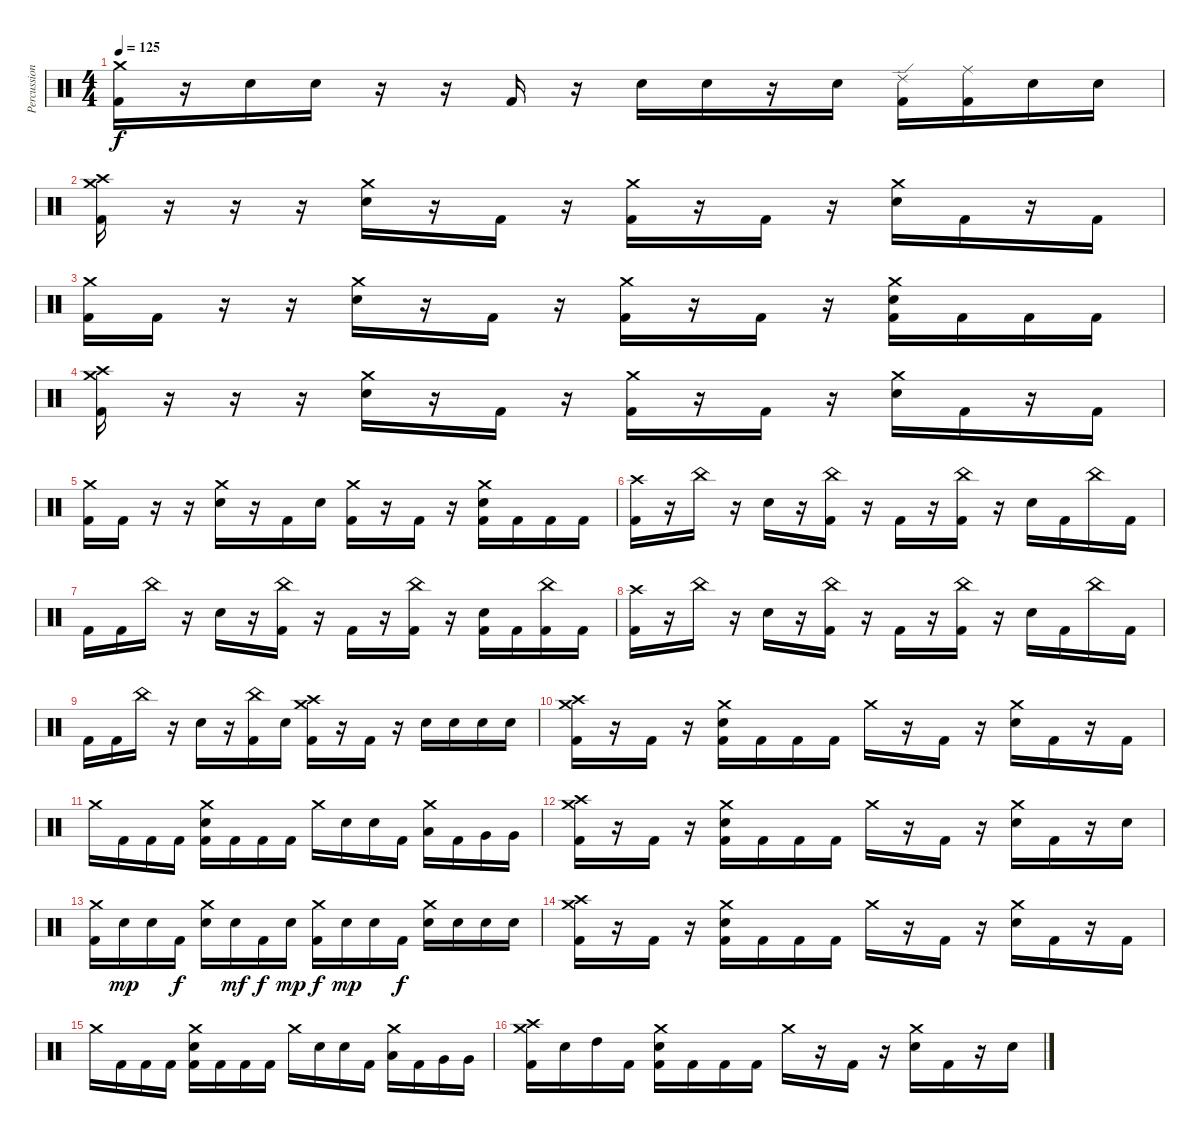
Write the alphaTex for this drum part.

\track ("Percussion" "Percussion") {instrument percussion}
\staff {score}
\articulation defaults
\ts (4 4)
\tempo 125
\clef neutral
\ks c
("Crash medium (hit)" "Kick (hit) 2").16{dy f} r.16 "Electric Snare (hit)".16 "Electric Snare (hit)".16 r.16 r.16 "Kick (hit) 2".16 r.16 "Electric Snare (hit)".16 "Electric Snare (hit)".16 r.16 "Electric Snare (hit)".16 ("Ride (edge) 2" "Kick (hit) 2").16 ("Ride (middle)" "Kick (hit) 2").16 "Electric Snare (hit)".16 "Electric Snare (hit)".16 |
("Crash high (hit)" "Crash medium (hit)" "Kick (hit) 2").16 r.16 r.16 r.16 ("Crash medium (hit)" "Electric Snare (hit)").16 r.16 "Kick (hit) 2".16 r.16 ("Crash medium (hit)" "Kick (hit) 2").16 r.16 "Kick (hit) 2".16 r.16 ("Crash medium (hit)" "Electric Snare (hit)").16 "Kick (hit) 2".16 r.16 "Kick (hit) 2".16 |
("Crash medium (hit)" "Kick (hit) 2").16 "Kick (hit) 2".16 r.16 r.16 ("Crash medium (hit)" "Electric Snare (hit)").16 r.16 "Kick (hit) 2".16 r.16 ("Crash medium (hit)" "Kick (hit) 2").16 r.16 "Kick (hit) 2".16 r.16 ("Crash medium (hit)" "Electric Snare (hit)" "Kick (hit) 2").16 "Kick (hit) 2".16 "Kick (hit) 2".16 "Kick (hit) 2".16 |
("Crash high (hit)" "Crash medium (hit)" "Kick (hit) 2").16 r.16 r.16 r.16 ("Crash medium (hit)" "Electric Snare (hit)").16 r.16 "Kick (hit) 2".16 r.16 ("Crash medium (hit)" "Kick (hit) 2").16 r.16 "Kick (hit) 2".16 r.16 ("Crash medium (hit)" "Electric Snare (hit)").16 "Kick (hit) 2".16 r.16 "Kick (hit) 2".16 |
("Crash medium (hit)" "Kick (hit) 2").16 "Kick (hit) 2".16 r.16 r.16 ("Crash medium (hit)" "Electric Snare (hit)").16 r.16 "Kick (hit) 2".16 "Electric Snare (hit)".16 ("Crash medium (hit)" "Kick (hit) 2").16 r.16 "Kick (hit) 2".16 r.16 ("Crash medium (hit)" "Electric Snare (hit)" "Kick (hit) 2").16 "Kick (hit) 2".16 "Kick (hit) 2".16 "Kick (hit) 2".16 |
("Crash high (hit)" "Kick (hit) 2").16 r.16 "China (hit)".16 r.16 "Electric Snare (hit)".16 r.16 ("China (hit)" "Kick (hit) 2").16 r.16 "Kick (hit) 2".16 r.16 ("China (hit)" "Kick (hit) 2").16 r.16 "Electric Snare (hit)".16 "Kick (hit) 2".16 "China (hit)".16 "Kick (hit) 2".16 |
"Kick (hit) 2".16 "Kick (hit) 2".16 "China (hit)".16 r.16 "Electric Snare (hit)".16 r.16 ("China (hit)" "Kick (hit) 2").16 r.16 "Kick (hit) 2".16 r.16 ("China (hit)" "Kick (hit) 2").16 r.16 ("Electric Snare (hit)" "Kick (hit) 2").16 "Kick (hit) 2".16 ("China (hit)" "Kick (hit) 2").16 "Kick (hit) 2".16 |
("Crash high (hit)" "Kick (hit) 2").16 r.16 "China (hit)".16 r.16 "Electric Snare (hit)".16 r.16 ("China (hit)" "Kick (hit) 2").16 r.16 "Kick (hit) 2".16 r.16 ("China (hit)" "Kick (hit) 2").16 r.16 "Electric Snare (hit)".16 "Kick (hit) 2".16 "China (hit)".16 "Kick (hit) 2".16 |
"Kick (hit) 2".16 "Kick (hit) 2".16 "China (hit)".16 r.16 "Electric Snare (hit)".16 r.16 ("China (hit)" "Kick (hit) 2").16 "Electric Snare (hit)".16 ("Crash high (hit)" "Crash medium (hit)" "Kick (hit) 2").16 r.16 "Kick (hit) 2".16 r.16 "Electric Snare (hit)".16 "Electric Snare (hit)".16 "Electric Snare (hit)".16 "Electric Snare (hit)".16 |
("Crash high (hit)" "Crash medium (hit)" "Kick (hit) 2").16 r.16 "Kick (hit) 2".16 r.16 ("Crash medium (hit)" "Electric Snare (hit)" "Kick (hit) 2").16 "Kick (hit) 2".16 "Kick (hit) 2".16 "Kick (hit) 2".16 "Crash medium (hit)".16 r.16 "Kick (hit) 2".16 r.16 ("Crash medium (hit)" "Electric Snare (hit)").16 "Kick (hit) 2".16 r.16 "Kick (hit) 2".16 |
"Crash medium (hit)".16 "Kick (hit) 2".16 "Kick (hit) 2".16 "Kick (hit) 2".16 ("Crash medium (hit)" "Electric Snare (hit)" "Kick (hit) 2").16 "Kick (hit) 2".16 "Kick (hit) 2".16 "Kick (hit) 2".16 "Crash medium (hit)".16 "Electric Snare (hit)".16 "Electric Snare (hit)".16 "Kick (hit) 2".16 ("Crash medium (hit)" "Low Tom (hit)").16 "Kick (hit) 2".16 "Very Low Tom (hit)".16 "Very Low Tom (hit)".16 |
("Crash high (hit)" "Crash medium (hit)" "Kick (hit) 2").16 r.16 "Kick (hit) 2".16 r.16 ("Crash medium (hit)" "Electric Snare (hit)" "Kick (hit) 2").16 "Kick (hit) 2".16 "Kick (hit) 2".16 "Kick (hit) 2".16 "Crash medium (hit)".16 r.16 "Kick (hit) 2".16 r.16 ("Crash medium (hit)" "Electric Snare (hit)").16 "Kick (hit) 2".16 r.16 "Electric Snare (hit)".16 |
("Crash medium (hit)" "Kick (hit) 2").16 "Electric Snare (hit)".16{dy mp} "Electric Snare (hit)".16 "Kick (hit) 2".16{dy f} ("Crash medium (hit)" "Electric Snare (hit)").16 "Electric Snare (hit)".16{dy mf} "Kick (hit) 2".16{dy f} "Electric Snare (hit)".16{dy mp} ("Crash medium (hit)" "Kick (hit) 2").16{dy f} "Electric Snare (hit)".16{dy mp} "Electric Snare (hit)".16 "Kick (hit) 2".16{dy f} ("Crash medium (hit)" "Electric Snare (hit)").16 "Electric Snare (hit)".16 "Electric Snare (hit)".16 "Electric Snare (hit)".16 |
("Crash high (hit)" "Crash medium (hit)" "Kick (hit) 2").16 r.16 "Kick (hit) 2".16 r.16 ("Crash medium (hit)" "Electric Snare (hit)" "Kick (hit) 2").16 "Kick (hit) 2".16 "Kick (hit) 2".16 "Kick (hit) 2".16 "Crash medium (hit)".16 r.16 "Kick (hit) 2".16 r.16 ("Crash medium (hit)" "Electric Snare (hit)").16 "Kick (hit) 2".16 r.16 "Kick (hit) 2".16 |
"Crash medium (hit)".16 "Kick (hit) 2".16 "Kick (hit) 2".16 "Kick (hit) 2".16 ("Crash medium (hit)" "Electric Snare (hit)" "Kick (hit) 2").16 "Kick (hit) 2".16 "Kick (hit) 2".16 "Kick (hit) 2".16 "Crash medium (hit)".16 "Electric Snare (hit)".16 "Electric Snare (hit)".16 "Kick (hit) 2".16 ("Crash medium (hit)" "Low Tom (hit)").16 "Kick (hit) 2".16 "Very Low Tom (hit)".16 "Very Low Tom (hit)".16 |
("Crash high (hit)" "Crash medium (hit)" "Kick (hit) 2").16 "Electric Snare (hit)".16 "High Tom (hit)".16 "Kick (hit) 2".16 ("Crash medium (hit)" "Electric Snare (hit)" "Kick (hit) 2").16 "Kick (hit) 2".16 "Kick (hit) 2".16 "Kick (hit) 2".16 "Crash medium (hit)".16 r.16 "Kick (hit) 2".16 r.16 ("Crash medium (hit)" "Electric Snare (hit)").16 "Kick (hit) 2".16 r.16 "Electric Snare (hit)".16
